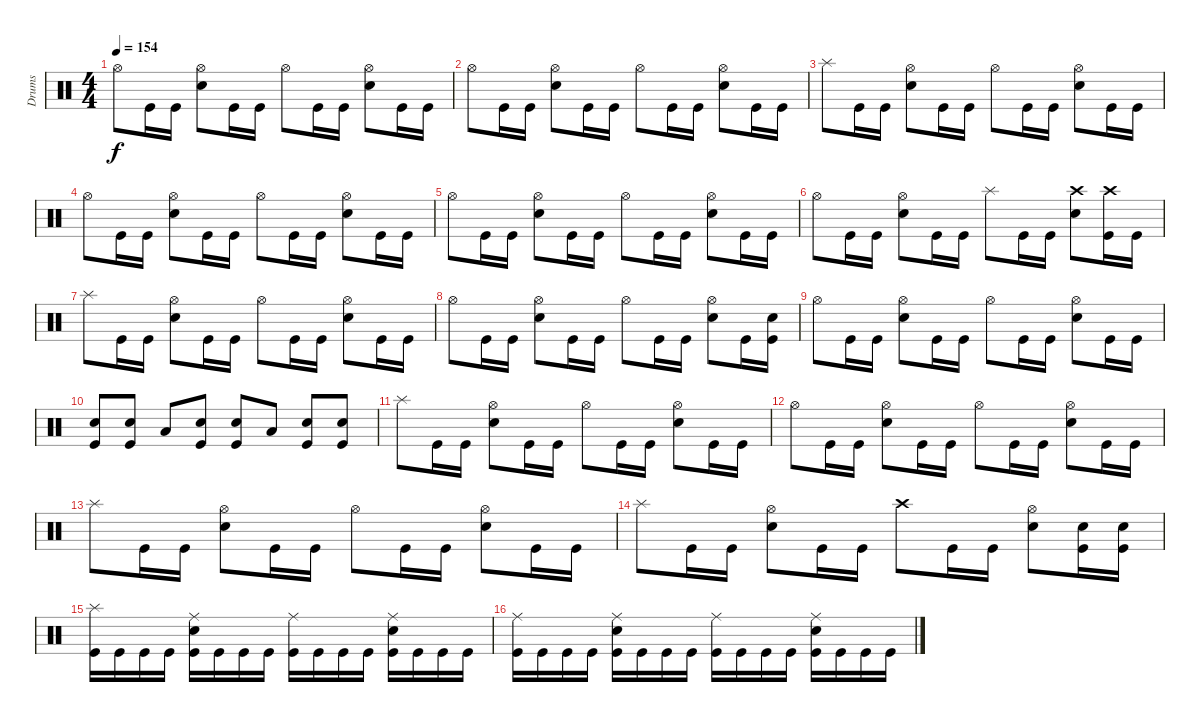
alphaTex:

\track ("Drums" "Drums") {instrument percussion}
\staff {score}
\articulation defaults
\ts (4 4)
\tempo 154
\clef neutral
\ks c "Hi-Hat (open)".8{dy f} "Kick (hit)".16 "Kick (hit)".16
("Hi-Hat (open)" "Snare (hit) 2").8 "Kick (hit)".16 "Kick (hit)".16 "Hi-Hat (open)".8 "Kick (hit)".16 "Kick (hit)".16 ("Hi-Hat (open)" "Snare (hit) 2").8 "Kick (hit)".16 "Kick (hit)".16 |
"Hi-Hat (open)".8 "Kick (hit)".16 "Kick (hit)".16 ("Hi-Hat (open)" "Snare (hit) 2").8 "Kick (hit)".16 "Kick (hit)".16 "Hi-Hat (open)".8 "Kick (hit)".16 "Kick (hit)".16 ("Hi-Hat (open)" "Snare (hit) 2").8 "Kick (hit)".16 "Kick (hit)".16 |
"Splash (hit)".8 "Kick (hit)".16 "Kick (hit)".16 ("Hi-Hat (open)" "Snare (hit) 2").8 "Kick (hit)".16 "Kick (hit)".16 "Hi-Hat (open)".8 "Kick (hit)".16 "Kick (hit)".16 ("Hi-Hat (open)" "Snare (hit) 2").8 "Kick (hit)".16 "Kick (hit)".16 |
"Hi-Hat (open)".8 "Kick (hit)".16 "Kick (hit)".16 ("Hi-Hat (open)" "Snare (hit) 2").8 "Kick (hit)".16 "Kick (hit)".16 "Hi-Hat (open)".8 "Kick (hit)".16 "Kick (hit)".16 ("Hi-Hat (open)" "Snare (hit) 2").8 "Kick (hit)".16 "Kick (hit)".16 |
"Hi-Hat (open)".8 "Kick (hit)".16 "Kick (hit)".16 ("Hi-Hat (open)" "Snare (hit) 2").8 "Kick (hit)".16 "Kick (hit)".16 "Hi-Hat (open)".8 "Kick (hit)".16 "Kick (hit)".16 ("Hi-Hat (open)" "Snare (hit) 2").8 "Kick (hit)".16 "Kick (hit)".16 |
"Hi-Hat (open)".8 "Kick (hit)".16 "Kick (hit)".16 ("Hi-Hat (open)" "Snare (hit) 2").8 "Kick (hit)".16 "Kick (hit)".16 "Splash (hit)".8 "Kick (hit)".16 "Kick (hit)".16 ("Crash high (hit)" "Snare (hit) 2").8 ("Crash high (hit)" "Kick (hit)").16 "Kick (hit)".16 |
"Splash (hit)".8 "Kick (hit)".16 "Kick (hit)".16 ("Hi-Hat (open)" "Snare (hit) 2").8 "Kick (hit)".16 "Kick (hit)".16 "Hi-Hat (open)".8 "Kick (hit)".16 "Kick (hit)".16 ("Hi-Hat (open)" "Snare (hit) 2").8 "Kick (hit)".16 "Kick (hit)".16 |
"Hi-Hat (open)".8 "Kick (hit)".16 "Kick (hit)".16 ("Hi-Hat (open)" "Snare (hit) 2").8 "Kick (hit)".16 "Kick (hit)".16 "Hi-Hat (open)".8 "Kick (hit)".16 "Kick (hit)".16 ("Hi-Hat (open)" "Snare (hit) 2").8 "Kick (hit)".16 ("Snare (hit) 2" "Kick (hit)").16 |
"Hi-Hat (open)".8 "Kick (hit)".16 "Kick (hit)".16 ("Hi-Hat (open)" "Snare (hit) 2").8 "Kick (hit)".16 "Kick (hit)".16 "Hi-Hat (open)".8 "Kick (hit)".16 "Kick (hit)".16 ("Hi-Hat (open)" "Snare (hit) 2").8 "Kick (hit)".16 "Kick (hit)".16 |
("Snare (hit) 2" "Kick (hit)").8 ("Snare (hit) 2" "Kick (hit)").8 "Low Tom (hit)".8 ("Snare (hit) 2" "Kick (hit)").8 ("Snare (hit) 2" "Kick (hit)").8 "Low Tom (hit)".8 ("Snare (hit) 2" "Kick (hit)").8 ("Snare (hit) 2" "Kick (hit)").8 |
"Splash (hit)".8 "Kick (hit)".16 "Kick (hit)".16 ("Hi-Hat (open)" "Snare (hit) 2").8 "Kick (hit)".16 "Kick (hit)".16 "Hi-Hat (open)".8 "Kick (hit)".16 "Kick (hit)".16 ("Hi-Hat (open)" "Snare (hit) 2").8 "Kick (hit)".16 "Kick (hit)".16 |
"Hi-Hat (open)".8 "Kick (hit)".16 "Kick (hit)".16 ("Hi-Hat (open)" "Snare (hit) 2").8 "Kick (hit)".16 "Kick (hit)".16 "Hi-Hat (open)".8 "Kick (hit)".16 "Kick (hit)".16 ("Hi-Hat (open)" "Snare (hit) 2").8 "Kick (hit)".16 "Kick (hit)".16 |
"Splash (hit)".8 "Kick (hit)".16 "Kick (hit)".16 ("Hi-Hat (open)" "Snare (hit) 2").8 "Kick (hit)".16 "Kick (hit)".16 "Hi-Hat (open)".8 "Kick (hit)".16 "Kick (hit)".16 ("Hi-Hat (open)" "Snare (hit) 2").8 "Kick (hit)".16 "Kick (hit)".16 |
"Splash (hit)".8 "Kick (hit)".16 "Kick (hit)".16 ("Hi-Hat (open)" "Snare (hit) 2").8 "Kick (hit)".16 "Kick (hit)".16 "Crash high (hit)".8 "Kick (hit)".16 "Kick (hit)".16 ("Hi-Hat (open)" "Snare (hit) 2").8 ("Snare (hit) 2" "Kick (hit)").16 ("Snare (hit) 2" "Kick (hit)").16 |
("Splash (hit)" "Kick (hit)").16 "Kick (hit)".16 "Kick (hit)".16 "Kick (hit)".16 ("Ride (middle)" "Snare (hit) 2" "Kick (hit)").16 "Kick (hit)".16 "Kick (hit)".16 "Kick (hit)".16 ("Ride (middle)" "Kick (hit)").16 "Kick (hit)".16 "Kick (hit)".16 "Kick (hit)".16 ("Ride (middle)" "Snare (hit) 2" "Kick (hit)").16 "Kick (hit)".16 "Kick (hit)".16 "Kick (hit)".16 |
("Ride (middle)" "Kick (hit)").16 "Kick (hit)".16 "Kick (hit)".16 "Kick (hit)".16 ("Ride (middle)" "Snare (hit) 2" "Kick (hit)").16 "Kick (hit)".16 "Kick (hit)".16 "Kick (hit)".16 ("Ride (middle)" "Kick (hit)").16 "Kick (hit)".16 "Kick (hit)".16 "Kick (hit)".16 ("Ride (middle)" "Snare (hit) 2" "Kick (hit)").16 "Kick (hit)".16 "Kick (hit)".16 "Kick (hit)".16
